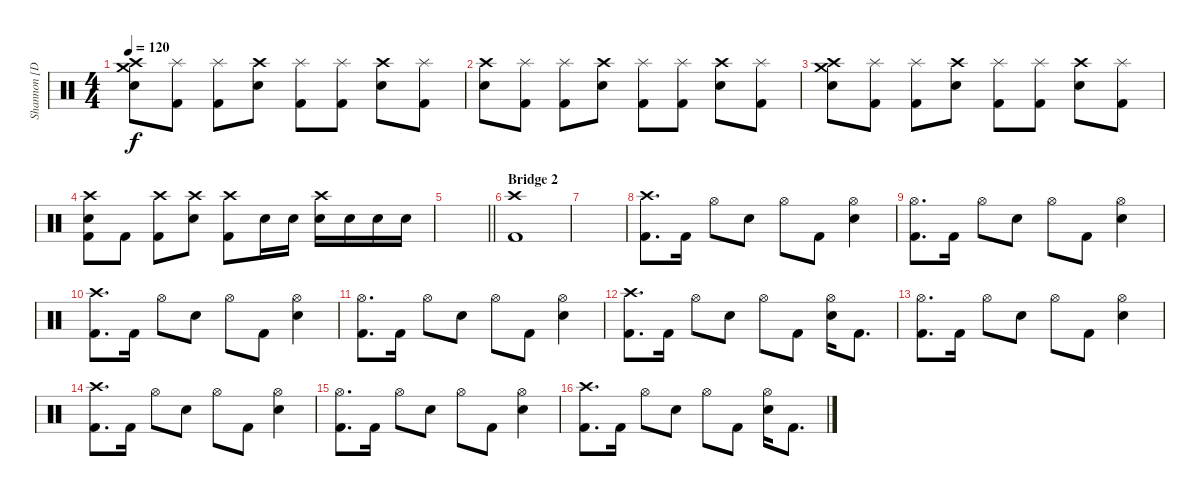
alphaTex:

\track ("Shannon [Drums]" "Shannon [D") {instrument percussion}
\staff {score}
\articulation defaults
\ts (4 4)
\tempo 120
\clef neutral
\ks c
("Crash high (hit)" "Crash medium (hit)" "Electric Snare (hit)").8{dy f} ("Splash (hit)" "Kick (hit) 2").8 ("Splash (hit)" "Kick (hit) 2").8 ("Crash high (hit)" "Electric Snare (hit)").8 ("Splash (hit)" "Kick (hit) 2").8 ("Splash (hit)" "Kick (hit) 2").8 ("Crash high (hit)" "Electric Snare (hit)").8 ("Splash (hit)" "Kick (hit) 2").8 |
("Crash high (hit)" "Electric Snare (hit)").8 ("Splash (hit)" "Kick (hit) 2").8 ("Splash (hit)" "Kick (hit) 2").8 ("Crash high (hit)" "Electric Snare (hit)").8 ("Splash (hit)" "Kick (hit) 2").8 ("Splash (hit)" "Kick (hit) 2").8 ("Crash high (hit)" "Electric Snare (hit)").8 ("Splash (hit)" "Kick (hit) 2").8 |
("Crash high (hit)" "Crash medium (hit)" "Electric Snare (hit)").8 ("Splash (hit)" "Kick (hit) 2").8 ("Splash (hit)" "Kick (hit) 2").8 ("Crash high (hit)" "Electric Snare (hit)").8 ("Splash (hit)" "Kick (hit) 2").8 ("Splash (hit)" "Kick (hit) 2").8 ("Crash high (hit)" "Electric Snare (hit)").8 ("Splash (hit)" "Kick (hit) 2").8 |
("Crash high (hit)" "Electric Snare (hit)" "Kick (hit) 2").8 "Kick (hit) 2".8 ("Crash high (hit)" "Kick (hit) 2").8 ("Crash high (hit)" "Electric Snare (hit)").8 ("Crash high (hit)" "Kick (hit) 2").8 "Electric Snare (hit)".16 "Electric Snare (hit)".16 ("Crash high (hit)" "Electric Snare (hit)").16 "Electric Snare (hit)".16 "Electric Snare (hit)".16 "Electric Snare (hit)".16 |
\barLineRight lightlight
|
\section ("" "Bridge 2")
("Crash high (hit)" "Kick (hit) 2").1 |
|
("Crash high (hit)" "Kick (hit) 2").8{d} "Kick (hit) 2".16 "Hi-Hat (open)".8 "Electric Snare (hit)".8 "Hi-Hat (open)".8 "Kick (hit) 2".8 ("Hi-Hat (open)" "Electric Snare (hit)").4 |
("Hi-Hat (open)" "Kick (hit) 2").8{d} "Kick (hit) 2".16 "Hi-Hat (open)".8 "Electric Snare (hit)".8 "Hi-Hat (open)".8 "Kick (hit) 2".8 ("Hi-Hat (open)" "Electric Snare (hit)").4 |
("Crash high (hit)" "Kick (hit) 2").8{d} "Kick (hit) 2".16 "Hi-Hat (open)".8 "Electric Snare (hit)".8 "Hi-Hat (open)".8 "Kick (hit) 2".8 ("Hi-Hat (open)" "Electric Snare (hit)").4 |
("Hi-Hat (open)" "Kick (hit) 2").8{d} "Kick (hit) 2".16 "Hi-Hat (open)".8 "Electric Snare (hit)".8 "Hi-Hat (open)".8 "Kick (hit) 2".8 ("Hi-Hat (open)" "Electric Snare (hit)").4 |
("Crash high (hit)" "Kick (hit) 2").8{d} "Kick (hit) 2".16 "Hi-Hat (open)".8 "Electric Snare (hit)".8 "Hi-Hat (open)".8 "Kick (hit) 2".8 ("Hi-Hat (open)" "Electric Snare (hit)").16 "Kick (hit) 2".8{d} |
("Hi-Hat (open)" "Kick (hit) 2").8{d} "Kick (hit) 2".16 "Hi-Hat (open)".8 "Electric Snare (hit)".8 "Hi-Hat (open)".8 "Kick (hit) 2".8 ("Hi-Hat (open)" "Electric Snare (hit)").4 |
("Crash high (hit)" "Kick (hit) 2").8{d} "Kick (hit) 2".16 "Hi-Hat (open)".8 "Electric Snare (hit)".8 "Hi-Hat (open)".8 "Kick (hit) 2".8 ("Hi-Hat (open)" "Electric Snare (hit)").4 |
("Hi-Hat (open)" "Kick (hit) 2").8{d} "Kick (hit) 2".16 "Hi-Hat (open)".8 "Electric Snare (hit)".8 "Hi-Hat (open)".8 "Kick (hit) 2".8 ("Hi-Hat (open)" "Electric Snare (hit)").4 |
("Crash high (hit)" "Kick (hit) 2").8{d} "Kick (hit) 2".16 "Hi-Hat (open)".8 "Electric Snare (hit)".8 "Hi-Hat (open)".8 "Kick (hit) 2".8 ("Hi-Hat (open)" "Electric Snare (hit)").16 "Kick (hit) 2".8{d}
